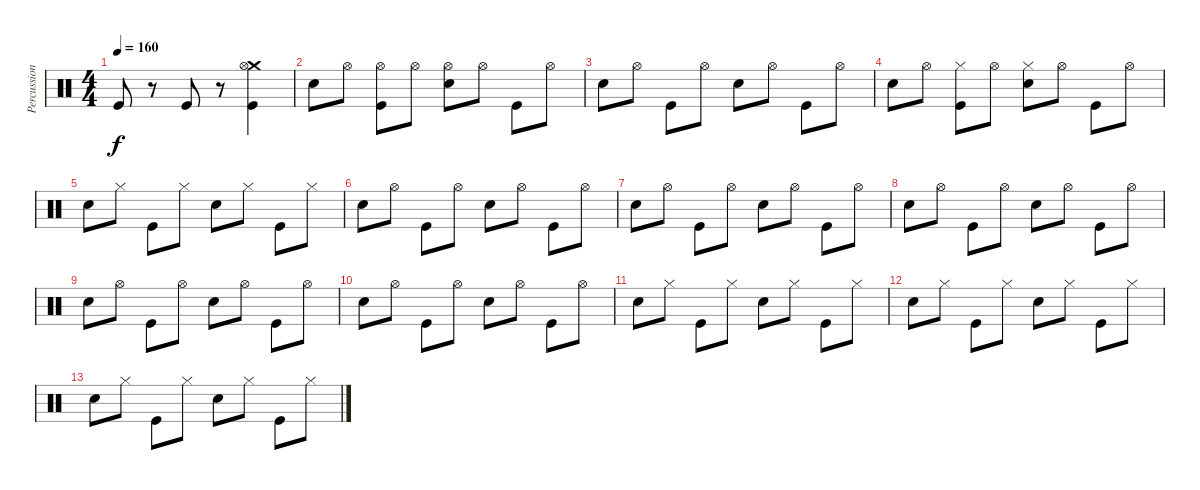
\track ("Percussion" "Percussion") {instrument percussion}
\staff {score}
\articulation defaults
\ts (4 4)
\tempo 160
\clef neutral
\ks c "Kick (hit)".8{dy f}
r.8 "Kick (hit)".8 r.8 ("Crash medium (hit)" "Kick (hit)" "Hi-Hat (open)").4 |
"Snare (hit) 2".8 "Hi-Hat (open)".8 ("Kick (hit)" "Hi-Hat (open)").8 "Hi-Hat (open)".8 ("Snare (hit) 2" "Hi-Hat (open)").8 "Hi-Hat (open)".8 "Kick (hit)".8 "Hi-Hat (open)".8 |
"Snare (hit) 2".8 "Hi-Hat (open)".8 "Kick (hit)".8 "Hi-Hat (open)".8 "Snare (hit) 2".8 "Hi-Hat (open)".8 "Kick (hit)".8 "Hi-Hat (open)".8 |
"Snare (hit) 2".8 "Hi-Hat (open)".8 ("Kick (hit)" "Hi-Hat (closed)").8 "Hi-Hat (open)".8 ("Snare (hit) 2" "Hi-Hat (closed)").8 "Hi-Hat (open)".8 "Kick (hit)".8 "Hi-Hat (open)".8 |
"Snare (hit) 2".8 "Hi-Hat (closed)".8 "Kick (hit)".8 "Hi-Hat (closed)".8 "Snare (hit) 2".8 "Hi-Hat (closed)".8 "Kick (hit)".8 "Hi-Hat (closed)".8 |
"Snare (hit) 2".8 "Hi-Hat (open)".8 "Kick (hit)".8 "Hi-Hat (open)".8 "Snare (hit) 2".8 "Hi-Hat (open)".8 "Kick (hit)".8 "Hi-Hat (open)".8 |
"Snare (hit) 2".8 "Hi-Hat (open)".8 "Kick (hit)".8 "Hi-Hat (open)".8 "Snare (hit) 2".8 "Hi-Hat (open)".8 "Kick (hit)".8 "Hi-Hat (open)".8 |
"Snare (hit) 2".8 "Hi-Hat (open)".8 "Kick (hit)".8 "Hi-Hat (open)".8 "Snare (hit) 2".8 "Hi-Hat (open)".8 "Kick (hit)".8 "Hi-Hat (open)".8 |
"Snare (hit) 2".8 "Hi-Hat (open)".8 "Kick (hit)".8 "Hi-Hat (open)".8 "Snare (hit) 2".8 "Hi-Hat (open)".8 "Kick (hit)".8 "Hi-Hat (open)".8 |
"Snare (hit) 2".8 "Hi-Hat (open)".8 "Kick (hit)".8 "Hi-Hat (open)".8 "Snare (hit) 2".8 "Hi-Hat (open)".8 "Kick (hit)".8 "Hi-Hat (open)".8 |
"Snare (hit) 2".8 "Hi-Hat (closed)".8 "Kick (hit)".8 "Hi-Hat (closed)".8 "Snare (hit) 2".8 "Hi-Hat (closed)".8 "Kick (hit)".8 "Hi-Hat (closed)".8 |
"Snare (hit) 2".8 "Hi-Hat (closed)".8 "Kick (hit)".8 "Hi-Hat (closed)".8 "Snare (hit) 2".8 "Hi-Hat (closed)".8 "Kick (hit)".8 "Hi-Hat (closed)".8 |
"Snare (hit) 2".8 "Hi-Hat (closed)".8 "Kick (hit)".8 "Hi-Hat (closed)".8 "Snare (hit) 2".8 "Hi-Hat (closed)".8 "Kick (hit)".8 "Hi-Hat (closed)".8
